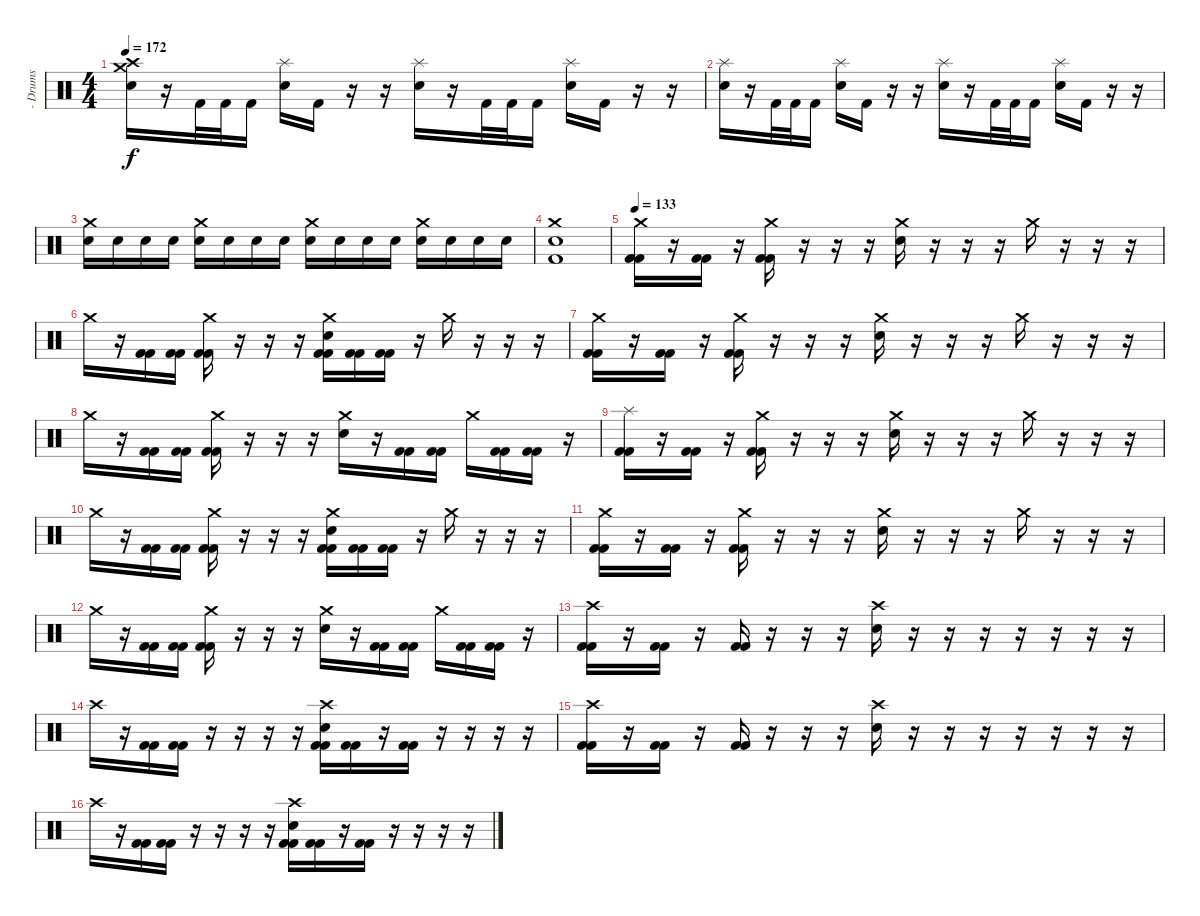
\track (" - Drums" " - Drums") {instrument percussion}
\staff {score}
\articulation defaults
\ts (4 4)
\tempo 172
\clef neutral
\ks c
("Crash high (hit)" "Crash medium (hit)" "Electric Snare (hit)").16{dy f} r.16 "Kick (hit) 2".32 "Kick (hit) 2".32 "Kick (hit) 2".16 ("Splash (hit)" "Electric Snare (hit)").16 "Kick (hit) 2".16 r.16 r.16 ("Splash (hit)" "Electric Snare (hit)").16 r.16 "Kick (hit) 2".32 "Kick (hit) 2".32 "Kick (hit) 2".16 ("Splash (hit)" "Electric Snare (hit)").16 "Kick (hit) 2".16 r.16 r.16 |
("Splash (hit)" "Electric Snare (hit)").16 r.16 "Kick (hit) 2".32 "Kick (hit) 2".32 "Kick (hit) 2".16 ("Splash (hit)" "Electric Snare (hit)").16 "Kick (hit) 2".16 r.16 r.16 ("Splash (hit)" "Electric Snare (hit)").16 r.16 "Kick (hit) 2".32 "Kick (hit) 2".32 "Kick (hit) 2".16 ("Splash (hit)" "Electric Snare (hit)").16 "Kick (hit) 2".16 r.16 r.16 |
("Crash medium (hit)" "Electric Snare (hit)").16 "Electric Snare (hit)".16 "Electric Snare (hit)".16 "Electric Snare (hit)".16 ("Crash medium (hit)" "Electric Snare (hit)").16 "Electric Snare (hit)".16 "Electric Snare (hit)".16 "Electric Snare (hit)".16 ("Crash medium (hit)" "Electric Snare (hit)").16 "Electric Snare (hit)".16 "Electric Snare (hit)".16 "Electric Snare (hit)".16 ("Crash medium (hit)" "Electric Snare (hit)").16 "Electric Snare (hit)".16 "Electric Snare (hit)".16 "Electric Snare (hit)".16 |
("Crash medium (hit)" "Electric Snare (hit)" "Kick (hit) 2").1 |
\tempo 133
("Crash medium (hit)" "Kick (hit) 2" "Kick (hit) 2").16 r.16 ("Kick (hit) 2" "Kick (hit) 2").16 r.16 ("Crash medium (hit)" "Kick (hit) 2" "Kick (hit) 2").16 r.16 r.16 r.16 ("Crash medium (hit)" "Electric Snare (hit)").16 r.16 r.16 r.16 "Crash medium (hit)".16 r.16 r.16 r.16 |
"Crash medium (hit)".16 r.16 ("Kick (hit) 2" "Kick (hit) 2").16 ("Kick (hit) 2" "Kick (hit) 2").16 ("Crash medium (hit)" "Kick (hit) 2" "Kick (hit) 2").16 r.16 r.16 r.16 ("Crash medium (hit)" "Electric Snare (hit)" "Kick (hit) 2" "Kick (hit) 2").16 ("Kick (hit) 2" "Kick (hit) 2").16 ("Kick (hit) 2" "Kick (hit) 2").16 r.16 "Crash medium (hit)".16 r.16 r.16 r.16 |
("Crash medium (hit)" "Kick (hit) 2" "Kick (hit) 2").16 r.16 ("Kick (hit) 2" "Kick (hit) 2").16 r.16 ("Crash medium (hit)" "Kick (hit) 2" "Kick (hit) 2").16 r.16 r.16 r.16 ("Crash medium (hit)" "Electric Snare (hit)").16 r.16 r.16 r.16 "Crash medium (hit)".16 r.16 r.16 r.16 |
"Crash medium (hit)".16 r.16 ("Kick (hit) 2" "Kick (hit) 2").16 ("Kick (hit) 2" "Kick (hit) 2").16 ("Crash medium (hit)" "Kick (hit) 2" "Kick (hit) 2").16 r.16 r.16 r.16 ("Crash medium (hit)" "Electric Snare (hit)").16 r.16 ("Kick (hit) 2" "Kick (hit) 2").16 ("Kick (hit) 2" "Kick (hit) 2").16 "Crash medium (hit)".16 ("Kick (hit) 2" "Kick (hit) 2").16 ("Kick (hit) 2" "Kick (hit) 2").16 r.16 |
("Splash (hit)" "Kick (hit) 2" "Kick (hit) 2").16 r.16 ("Kick (hit) 2" "Kick (hit) 2").16 r.16 ("Crash medium (hit)" "Kick (hit) 2" "Kick (hit) 2").16 r.16 r.16 r.16 ("Crash medium (hit)" "Electric Snare (hit)").16 r.16 r.16 r.16 "Crash medium (hit)".16 r.16 r.16 r.16 |
"Crash medium (hit)".16 r.16 ("Kick (hit) 2" "Kick (hit) 2").16 ("Kick (hit) 2" "Kick (hit) 2").16 ("Crash medium (hit)" "Kick (hit) 2" "Kick (hit) 2").16 r.16 r.16 r.16 ("Crash medium (hit)" "Electric Snare (hit)" "Kick (hit) 2" "Kick (hit) 2").16 ("Kick (hit) 2" "Kick (hit) 2").16 ("Kick (hit) 2" "Kick (hit) 2").16 r.16 "Crash medium (hit)".16 r.16 r.16 r.16 |
("Crash medium (hit)" "Kick (hit) 2" "Kick (hit) 2").16 r.16 ("Kick (hit) 2" "Kick (hit) 2").16 r.16 ("Crash medium (hit)" "Kick (hit) 2" "Kick (hit) 2").16 r.16 r.16 r.16 ("Crash medium (hit)" "Electric Snare (hit)").16 r.16 r.16 r.16 "Crash medium (hit)".16 r.16 r.16 r.16 |
"Crash medium (hit)".16 r.16 ("Kick (hit) 2" "Kick (hit) 2").16 ("Kick (hit) 2" "Kick (hit) 2").16 ("Crash medium (hit)" "Kick (hit) 2" "Kick (hit) 2").16 r.16 r.16 r.16 ("Crash medium (hit)" "Electric Snare (hit)").16 r.16 ("Kick (hit) 2" "Kick (hit) 2").16 ("Kick (hit) 2" "Kick (hit) 2").16 "Crash medium (hit)".16 ("Kick (hit) 2" "Kick (hit) 2").16 ("Kick (hit) 2" "Kick (hit) 2").16 r.16 |
("Crash high (hit)" "Kick (hit) 2" "Kick (hit) 2").16 r.16 ("Kick (hit) 2" "Kick (hit) 2").16 r.16 ("Kick (hit) 2" "Kick (hit) 2").16 r.16 r.16 r.16 ("Crash high (hit)" "Electric Snare (hit)").16 r.16 r.16 r.16 r.16 r.16 r.16 r.16 |
"Crash high (hit)".16 r.16 ("Kick (hit) 2" "Kick (hit) 2").16 ("Kick (hit) 2" "Kick (hit) 2").16 r.16 r.16 r.16 r.16 ("Crash high (hit)" "Electric Snare (hit)" "Kick (hit) 2" "Kick (hit) 2").16 ("Kick (hit) 2" "Kick (hit) 2").16 r.16 ("Kick (hit) 2" "Kick (hit) 2").16 r.16 r.16 r.16 r.16 |
("Crash high (hit)" "Kick (hit) 2" "Kick (hit) 2").16 r.16 ("Kick (hit) 2" "Kick (hit) 2").16 r.16 ("Kick (hit) 2" "Kick (hit) 2").16 r.16 r.16 r.16 ("Crash high (hit)" "Electric Snare (hit)").16 r.16 r.16 r.16 r.16 r.16 r.16 r.16 |
"Crash high (hit)".16 r.16 ("Kick (hit) 2" "Kick (hit) 2").16 ("Kick (hit) 2" "Kick (hit) 2").16 r.16 r.16 r.16 r.16 ("Crash high (hit)" "Electric Snare (hit)" "Kick (hit) 2" "Kick (hit) 2").16 ("Kick (hit) 2" "Kick (hit) 2").16 r.16 ("Kick (hit) 2" "Kick (hit) 2").16 r.16 r.16 r.16 r.16
